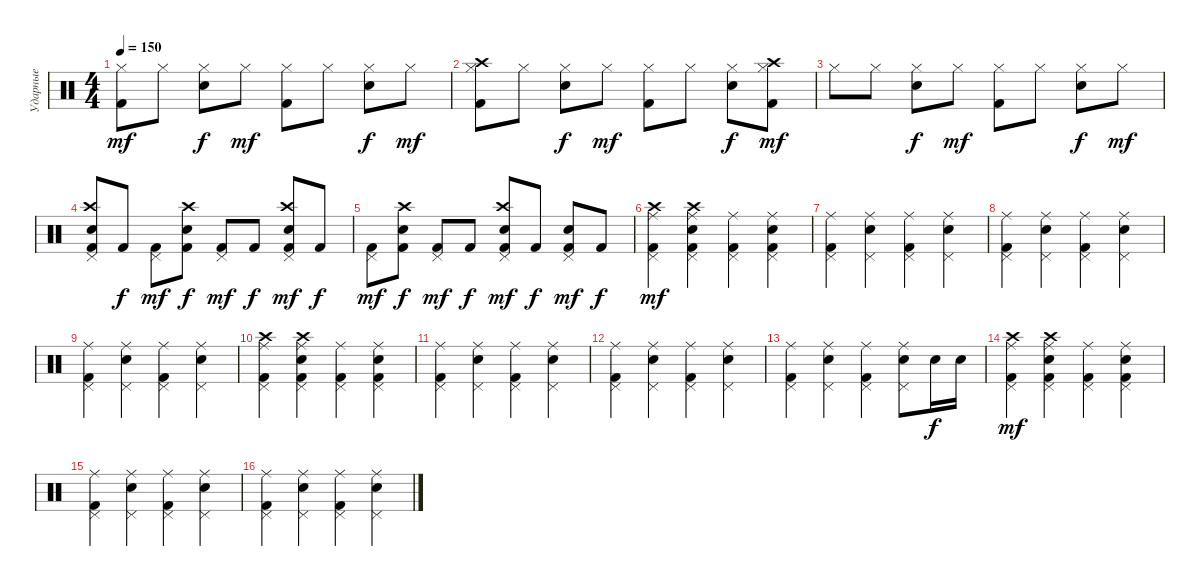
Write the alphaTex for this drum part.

\track ("Ударные" "Ударные") {instrument percussion}
\staff {score}
\articulation defaults
\ts (4 4)
\tempo 150
\clef neutral
\ks c
("Kick (hit) 2" "Hi-Hat (closed)").8{dy mf} "Hi-Hat (closed)".8 ("Snare (hit) 2" "Hi-Hat (closed)").8{dy f} "Hi-Hat (closed)".8{dy mf} ("Kick (hit) 2" "Hi-Hat (closed)").8 "Hi-Hat (closed)".8 ("Snare (hit) 2" "Hi-Hat (closed)").8{dy f} "Hi-Hat (closed)".8{dy mf} |
("Kick (hit) 2" "Crash high (hit)" "Hi-Hat (closed)").8 "Hi-Hat (closed)".8 ("Snare (hit) 2" "Hi-Hat (closed)").8{dy f} "Hi-Hat (closed)".8{dy mf} ("Kick (hit) 2" "Hi-Hat (closed)").8 "Hi-Hat (closed)".8 ("Snare (hit) 2" "Hi-Hat (closed)").8{dy f} ("Kick (hit) 2" "Crash high (hit)" "Hi-Hat (closed)").8{dy mf} |
"Hi-Hat (closed)".8 "Hi-Hat (closed)".8 ("Snare (hit) 2" "Hi-Hat (closed)").8{dy f} "Hi-Hat (closed)".8{dy mf} ("Kick (hit) 2" "Hi-Hat (closed)").8 "Hi-Hat (closed)".8 ("Snare (hit) 2" "Hi-Hat (closed)").8{dy f} "Hi-Hat (closed)".8{dy mf} |
("Kick (hit) 2" "Snare (hit) 2" "Crash high (hit)" "Pedal Hi-Hat (hit)").8 "Kick (hit) 2".8{dy f} ("Kick (hit) 2" "Pedal Hi-Hat (hit)").8{dy mf} ("Kick (hit) 2" "Snare (hit) 2" "Crash high (hit)").8{dy f} ("Kick (hit) 2" "Pedal Hi-Hat (hit)").8{dy mf} "Kick (hit) 2".8{dy f} ("Kick (hit) 2" "Snare (hit) 2" "Crash high (hit)" "Pedal Hi-Hat (hit)").8{dy mf} "Kick (hit) 2".8{dy f} |
("Kick (hit) 2" "Pedal Hi-Hat (hit)").8{dy mf} ("Kick (hit) 2" "Snare (hit) 2" "Crash high (hit)").8{dy f} ("Kick (hit) 2" "Pedal Hi-Hat (hit)").8{dy mf} "Kick (hit) 2".8{dy f} ("Kick (hit) 2" "Snare (hit) 2" "Crash high (hit)" "Pedal Hi-Hat (hit)").8{dy mf} "Kick (hit) 2".8{dy f} ("Kick (hit) 2" "Snare (hit) 2" "Pedal Hi-Hat (hit)").8{dy mf} "Kick (hit) 2".8{dy f} |
("Kick (hit) 2" "Crash high (hit)" "Pedal Hi-Hat (hit)" "Ride (middle)").4{dy mf} ("Kick (hit) 2" "Snare (hit) 2" "Crash high (hit)" "Pedal Hi-Hat (hit)" "Ride (middle)").4 ("Kick (hit) 2" "Pedal Hi-Hat (hit)" "Ride (middle)").4 ("Kick (hit) 2" "Snare (hit) 2" "Pedal Hi-Hat (hit)" "Ride (middle)").4 |
("Kick (hit) 2" "Pedal Hi-Hat (hit)" "Ride (middle)").4 ("Snare (hit) 2" "Pedal Hi-Hat (hit)" "Ride (middle)").4 ("Kick (hit) 2" "Pedal Hi-Hat (hit)" "Ride (middle)").4 ("Snare (hit) 2" "Pedal Hi-Hat (hit)" "Ride (middle)").4 |
("Kick (hit) 2" "Pedal Hi-Hat (hit)" "Ride (middle)").4 ("Snare (hit) 2" "Pedal Hi-Hat (hit)" "Ride (middle)").4 ("Kick (hit) 2" "Pedal Hi-Hat (hit)" "Ride (middle)").4 ("Snare (hit) 2" "Pedal Hi-Hat (hit)" "Ride (middle)").4 |
("Kick (hit) 2" "Pedal Hi-Hat (hit)" "Ride (middle)").4 ("Snare (hit) 2" "Pedal Hi-Hat (hit)" "Ride (middle)").4 ("Kick (hit) 2" "Pedal Hi-Hat (hit)" "Ride (middle)").4 ("Snare (hit) 2" "Pedal Hi-Hat (hit)" "Ride (middle)").4 |
("Kick (hit) 2" "Crash high (hit)" "Pedal Hi-Hat (hit)" "Ride (middle)").4 ("Kick (hit) 2" "Snare (hit) 2" "Crash high (hit)" "Pedal Hi-Hat (hit)" "Ride (middle)").4 ("Kick (hit) 2" "Pedal Hi-Hat (hit)" "Ride (middle)").4 ("Kick (hit) 2" "Snare (hit) 2" "Pedal Hi-Hat (hit)" "Ride (middle)").4 |
("Kick (hit) 2" "Pedal Hi-Hat (hit)" "Ride (middle)").4 ("Snare (hit) 2" "Pedal Hi-Hat (hit)" "Ride (middle)").4 ("Kick (hit) 2" "Pedal Hi-Hat (hit)" "Ride (middle)").4 ("Snare (hit) 2" "Pedal Hi-Hat (hit)" "Ride (middle)").4 |
("Kick (hit) 2" "Pedal Hi-Hat (hit)" "Ride (middle)").4 ("Snare (hit) 2" "Pedal Hi-Hat (hit)" "Ride (middle)").4 ("Kick (hit) 2" "Pedal Hi-Hat (hit)" "Ride (middle)").4 ("Snare (hit) 2" "Pedal Hi-Hat (hit)" "Ride (middle)").4 |
("Kick (hit) 2" "Pedal Hi-Hat (hit)" "Ride (middle)").4 ("Snare (hit) 2" "Pedal Hi-Hat (hit)" "Ride (middle)").4 ("Kick (hit) 2" "Pedal Hi-Hat (hit)" "Ride (middle)").4 ("Snare (hit) 2" "Pedal Hi-Hat (hit)" "Ride (middle)").8 "Snare (hit) 2".16{dy f} "Snare (hit) 2".16 |
("Kick (hit) 2" "Crash high (hit)" "Pedal Hi-Hat (hit)" "Ride (middle)").4{dy mf} ("Kick (hit) 2" "Snare (hit) 2" "Crash high (hit)" "Pedal Hi-Hat (hit)" "Ride (middle)").4 ("Kick (hit) 2" "Pedal Hi-Hat (hit)" "Ride (middle)").4 ("Kick (hit) 2" "Snare (hit) 2" "Pedal Hi-Hat (hit)" "Ride (middle)").4 |
("Kick (hit) 2" "Pedal Hi-Hat (hit)" "Ride (middle)").4 ("Snare (hit) 2" "Pedal Hi-Hat (hit)" "Ride (middle)").4 ("Kick (hit) 2" "Pedal Hi-Hat (hit)" "Ride (middle)").4 ("Snare (hit) 2" "Pedal Hi-Hat (hit)" "Ride (middle)").4 |
("Kick (hit) 2" "Pedal Hi-Hat (hit)" "Ride (middle)").4 ("Snare (hit) 2" "Pedal Hi-Hat (hit)" "Ride (middle)").4 ("Kick (hit) 2" "Pedal Hi-Hat (hit)" "Ride (middle)").4 ("Snare (hit) 2" "Pedal Hi-Hat (hit)" "Ride (middle)").4
